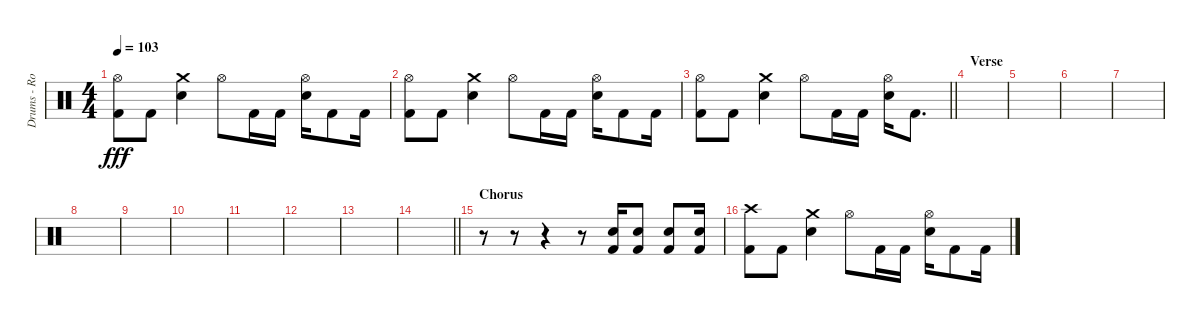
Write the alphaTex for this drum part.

\track ("Drums - Rob Bourdon" "Drums - Ro") {instrument percussion}
\staff {score}
\articulation defaults
\ts (4 4)
\tempo 103
\clef neutral
\ks c
("Hi-Hat (open)" "Kick (hit) 2").8{dy fff} "Kick (hit) 2".8 ("Crash medium (hit)" "Snare (hit) 2").4 "Hi-Hat (open)".8 "Kick (hit) 2".16 "Kick (hit) 2".16 ("Hi-Hat (open)" "Snare (hit) 2").16 "Kick (hit) 2".8 "Kick (hit) 2".16 |
("Hi-Hat (open)" "Kick (hit) 2").8 "Kick (hit) 2".8 ("Crash medium (hit)" "Snare (hit) 2").4 "Hi-Hat (open)".8 "Kick (hit) 2".16 "Kick (hit) 2".16 ("Hi-Hat (open)" "Snare (hit) 2").16 "Kick (hit) 2".8 "Kick (hit) 2".16 |
\barLineRight lightlight
("Hi-Hat (open)" "Kick (hit) 2").8 "Kick (hit) 2".8 ("Crash medium (hit)" "Snare (hit) 2").4 "Hi-Hat (open)".8 "Kick (hit) 2".16 "Kick (hit) 2".16 ("Hi-Hat (open)" "Snare (hit) 2").16 "Kick (hit) 2".8{d} |
\section ("" "Verse")
|
|
|
|
|
|
|
|
|
|
\barLineRight lightlight
|
\section ("" "Chorus")
r.8 r.8 r.4 r.8 ("Snare (hit) 2" "Kick (hit) 2").16 ("Snare (hit) 2" "Kick (hit) 2").8 ("Snare (hit) 2" "Kick (hit) 2").8 ("Snare (hit) 2" "Kick (hit) 2").16 |
("Crash high (hit)" "Kick (hit) 2").8 "Kick (hit) 2".8 ("Crash medium (hit)" "Snare (hit) 2").4 "Hi-Hat (open)".8 "Kick (hit) 2".16 "Kick (hit) 2".16 ("Hi-Hat (open)" "Snare (hit) 2").16 "Kick (hit) 2".8 "Kick (hit) 2".16
